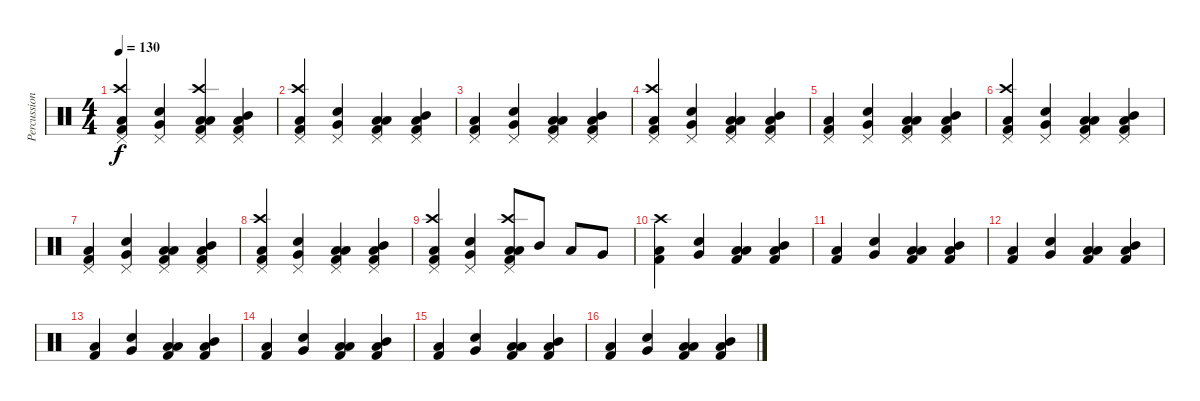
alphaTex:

\track ("Percussion" "Percussion") {instrument percussion}
\staff {score}
\articulation defaults
\ts (4 4)
\tempo 130
\clef neutral
\ks c
("Pedal Hi-Hat (hit)" "Crash high (hit)" "Kick (hit) 2" "Low Floor Tom (hit)").4{dy f} ("Pedal Hi-Hat (hit)" "Very Low Tom (hit)" "Snare (hit) 2").4 ("Pedal Hi-Hat (hit)" "Crash high (hit)" "Low Floor Tom (hit)" "Kick (hit) 2" "Low Tom (hit)").4 ("Pedal Hi-Hat (hit)" "Low Tom (hit)" "Kick (hit) 2" "Mid Tom (hit)").4 |
("Pedal Hi-Hat (hit)" "Crash high (hit)" "Kick (hit) 2" "Low Floor Tom (hit)").4 ("Pedal Hi-Hat (hit)" "Very Low Tom (hit)" "Snare (hit) 2").4 ("Pedal Hi-Hat (hit)" "Low Floor Tom (hit)" "Kick (hit) 2" "Low Tom (hit)").4 ("Pedal Hi-Hat (hit)" "Low Tom (hit)" "Kick (hit) 2" "Mid Tom (hit)").4 |
("Pedal Hi-Hat (hit)" "Kick (hit) 2" "Low Floor Tom (hit)").4 ("Pedal Hi-Hat (hit)" "Very Low Tom (hit)" "Snare (hit) 2").4 ("Pedal Hi-Hat (hit)" "Low Floor Tom (hit)" "Kick (hit) 2" "Low Tom (hit)").4 ("Pedal Hi-Hat (hit)" "Low Tom (hit)" "Kick (hit) 2" "Mid Tom (hit)").4 |
("Pedal Hi-Hat (hit)" "Crash high (hit)" "Kick (hit) 2" "Low Floor Tom (hit)").4 ("Pedal Hi-Hat (hit)" "Very Low Tom (hit)" "Snare (hit) 2").4 ("Pedal Hi-Hat (hit)" "Low Floor Tom (hit)" "Kick (hit) 2" "Low Tom (hit)").4 ("Pedal Hi-Hat (hit)" "Low Tom (hit)" "Kick (hit) 2" "Mid Tom (hit)").4 |
("Pedal Hi-Hat (hit)" "Kick (hit) 2" "Low Floor Tom (hit)").4 ("Pedal Hi-Hat (hit)" "Very Low Tom (hit)" "Snare (hit) 2").4 ("Pedal Hi-Hat (hit)" "Low Floor Tom (hit)" "Kick (hit) 2" "Low Tom (hit)").4 ("Pedal Hi-Hat (hit)" "Low Tom (hit)" "Kick (hit) 2" "Mid Tom (hit)").4 |
("Pedal Hi-Hat (hit)" "Crash high (hit)" "Kick (hit) 2" "Low Floor Tom (hit)").4 ("Pedal Hi-Hat (hit)" "Very Low Tom (hit)" "Snare (hit) 2").4 ("Pedal Hi-Hat (hit)" "Low Floor Tom (hit)" "Kick (hit) 2" "Low Tom (hit)").4 ("Pedal Hi-Hat (hit)" "Low Tom (hit)" "Kick (hit) 2" "Mid Tom (hit)").4 |
("Pedal Hi-Hat (hit)" "Kick (hit) 2" "Low Floor Tom (hit)").4 ("Pedal Hi-Hat (hit)" "Very Low Tom (hit)" "Snare (hit) 2").4 ("Pedal Hi-Hat (hit)" "Low Floor Tom (hit)" "Kick (hit) 2" "Low Tom (hit)").4 ("Pedal Hi-Hat (hit)" "Low Tom (hit)" "Kick (hit) 2" "Mid Tom (hit)").4 |
("Pedal Hi-Hat (hit)" "Crash high (hit)" "Kick (hit) 2" "Low Floor Tom (hit)").4 ("Pedal Hi-Hat (hit)" "Very Low Tom (hit)" "Snare (hit) 2").4 ("Pedal Hi-Hat (hit)" "Low Floor Tom (hit)" "Kick (hit) 2" "Low Tom (hit)").4 ("Pedal Hi-Hat (hit)" "Low Tom (hit)" "Kick (hit) 2" "Mid Tom (hit)").4 |
("Pedal Hi-Hat (hit)" "Crash high (hit)" "Kick (hit) 2" "Low Floor Tom (hit)").4 ("Pedal Hi-Hat (hit)" "Very Low Tom (hit)" "Snare (hit) 2").4 ("Pedal Hi-Hat (hit)" "Crash high (hit)" "Low Floor Tom (hit)" "Kick (hit) 2" "Low Tom (hit)").8 "Mid Tom (hit)".8 "Low Tom (hit)".8 "Very Low Tom (hit)".8 |
("Kick (hit) 2" "Crash high (hit)" "Low Floor Tom (hit)").4 ("Very Low Tom (hit)" "Snare (hit) 2").4 ("Low Floor Tom (hit)" "Kick (hit) 2" "Low Tom (hit)").4 ("Low Tom (hit)" "Kick (hit) 2" "Mid Tom (hit)").4 |
("Kick (hit) 2" "Low Floor Tom (hit)").4 ("Very Low Tom (hit)" "Snare (hit) 2").4 ("Low Floor Tom (hit)" "Kick (hit) 2" "Low Tom (hit)").4 ("Low Tom (hit)" "Kick (hit) 2" "Mid Tom (hit)").4 |
("Kick (hit) 2" "Low Floor Tom (hit)").4 ("Very Low Tom (hit)" "Snare (hit) 2").4 ("Low Floor Tom (hit)" "Kick (hit) 2" "Low Tom (hit)").4 ("Low Tom (hit)" "Kick (hit) 2" "Mid Tom (hit)").4 |
("Kick (hit) 2" "Low Floor Tom (hit)").4 ("Very Low Tom (hit)" "Snare (hit) 2").4 ("Low Floor Tom (hit)" "Kick (hit) 2" "Low Tom (hit)").4 ("Low Tom (hit)" "Kick (hit) 2" "Mid Tom (hit)").4 |
("Kick (hit) 2" "Low Floor Tom (hit)").4 ("Very Low Tom (hit)" "Snare (hit) 2").4 ("Low Floor Tom (hit)" "Kick (hit) 2" "Low Tom (hit)").4 ("Low Tom (hit)" "Kick (hit) 2" "Mid Tom (hit)").4 |
("Kick (hit) 2" "Low Floor Tom (hit)").4 ("Very Low Tom (hit)" "Snare (hit) 2").4 ("Low Floor Tom (hit)" "Kick (hit) 2" "Low Tom (hit)").4 ("Low Tom (hit)" "Kick (hit) 2" "Mid Tom (hit)").4 |
("Kick (hit) 2" "Low Floor Tom (hit)").4 ("Very Low Tom (hit)" "Snare (hit) 2").4 ("Low Floor Tom (hit)" "Kick (hit) 2" "Low Tom (hit)").4 ("Low Tom (hit)" "Kick (hit) 2" "Mid Tom (hit)").4
